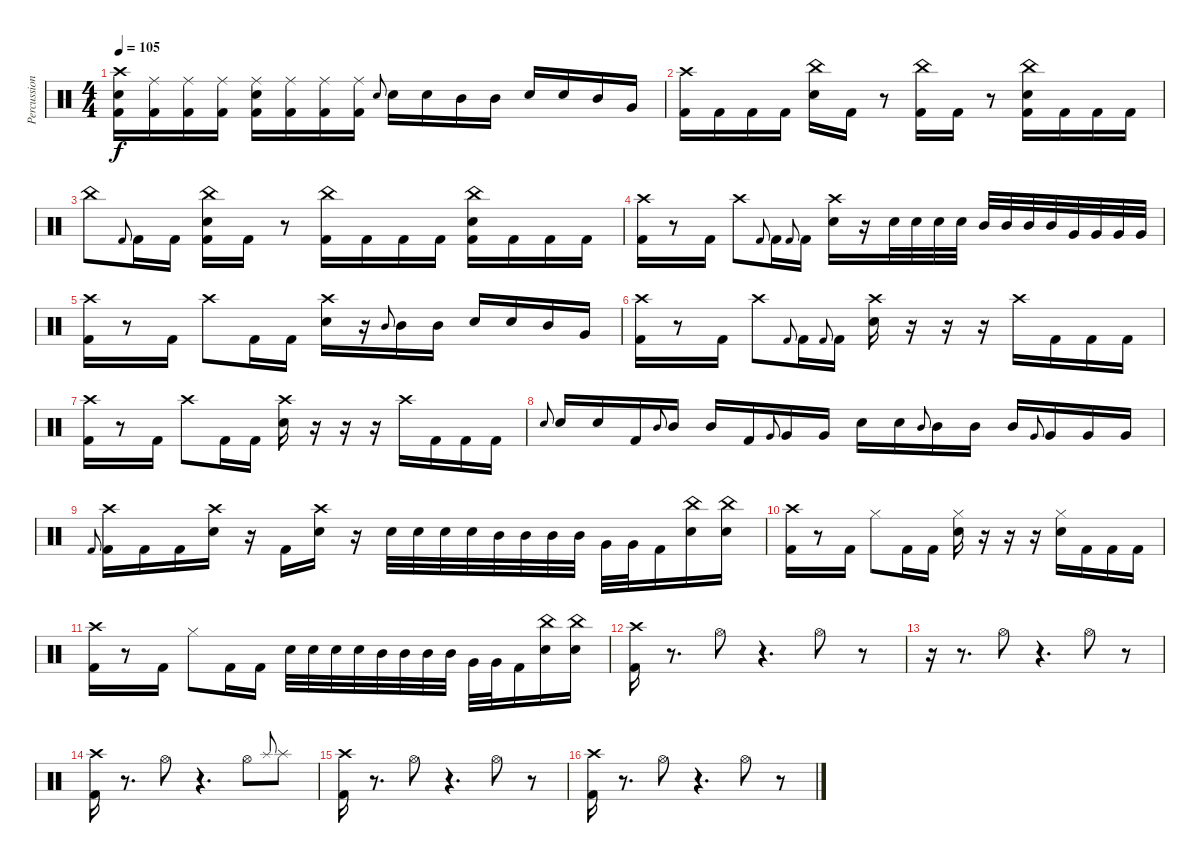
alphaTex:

\track ("Percussion" "Percussion") {instrument percussion}
\staff {score}
\articulation defaults
\ts (4 4)
\tempo 105
\clef neutral
\ks c
("Crash high (hit)" "Snare (hit) 2" "Kick (hit) 2").16{dy f} ("Ride (middle)" "Kick (hit) 2").16 ("Ride (middle)" "Kick (hit) 2").16 ("Ride (middle)" "Kick (hit) 2").16 ("Ride (middle)" "Snare (hit) 2" "Kick (hit) 2").16 ("Ride (middle)" "Kick (hit) 2").16 ("Ride (middle)" "Kick (hit) 2").16 ("Ride (middle)" "Kick (hit) 2").16 "Snare (hit) 2".8{gr onbeat} "Snare (hit) 2".16 "Snare (hit) 2".16 "Mid Tom (hit)".16 "Mid Tom (hit)".16 "Snare (hit) 2".16 "Snare (hit) 2".16 "Mid Tom (hit)".16 "Very Low Tom (hit)".16 |
("Crash high (hit)" "Kick (hit) 2").16 "Kick (hit) 2".16 "Kick (hit) 2".16 "Kick (hit) 2".16 ("China (hit)" "Snare (hit) 2").16 "Kick (hit) 2".16 r.8 ("China (hit)" "Kick (hit) 2").16 "Kick (hit) 2".16 r.8 ("China (hit)" "Snare (hit) 2" "Kick (hit) 2").16 "Kick (hit) 2".16 "Kick (hit) 2".16 "Kick (hit) 2".16 |
"China (hit)".8 "Kick (hit) 2".8{gr onbeat} "Kick (hit) 2".16 "Kick (hit) 2".16 ("China (hit)" "Snare (hit) 2" "Kick (hit) 2").16 "Kick (hit) 2".16 r.8 ("China (hit)" "Kick (hit) 2").16 "Kick (hit) 2".16 "Kick (hit) 2".16 "Kick (hit) 2".16 ("China (hit)" "Snare (hit) 2" "Kick (hit) 2").16 "Kick (hit) 2".16 "Kick (hit) 2".16 "Kick (hit) 2".16 |
("Crash high (hit)" "Kick (hit) 2").16 r.8 "Kick (hit) 2".16 "Crash high (hit)".8 "Kick (hit) 2".8{gr onbeat} "Kick (hit) 2".16 "Kick (hit) 2".8{gr onbeat} "Kick (hit) 2".16 ("Crash high (hit)" "Snare (hit) 2").16 r.16 "Snare (hit) 2".32 "Snare (hit) 2".32 "Snare (hit) 2".32 "Snare (hit) 2".32 "Mid Tom (hit)".32 "Mid Tom (hit)".32 "Mid Tom (hit)".32 "Mid Tom (hit)".32 "Very Low Tom (hit)".32 "Very Low Tom (hit)".32 "Very Low Tom (hit)".32 "Very Low Tom (hit)".32 |
("Crash high (hit)" "Kick (hit) 2").16 r.8 "Kick (hit) 2".16 "Crash high (hit)".8 "Kick (hit) 2".16 "Kick (hit) 2".16 ("Crash high (hit)" "Snare (hit) 2").16 r.16 "Mid Tom (hit)".8{gr onbeat} "Mid Tom (hit)".16 "Mid Tom (hit)".16 "Snare (hit) 2".16 "Snare (hit) 2".16 "Mid Tom (hit)".16 "Very Low Tom (hit)".16 |
("Crash high (hit)" "Kick (hit) 2").16 r.8 "Kick (hit) 2".16 "Crash high (hit)".8 "Kick (hit) 2".8{gr onbeat} "Kick (hit) 2".16 "Kick (hit) 2".8{gr onbeat} "Kick (hit) 2".16 ("Crash high (hit)" "Snare (hit) 2").16 r.16 r.16 r.16 "Crash high (hit)".16 "Kick (hit) 2".16 "Kick (hit) 2".16 "Kick (hit) 2".16 |
("Crash high (hit)" "Kick (hit) 2").16 r.8 "Kick (hit) 2".16 "Crash high (hit)".8 "Kick (hit) 2".16 "Kick (hit) 2".16 ("Crash high (hit)" "Snare (hit) 2").16 r.16 r.16 r.16 "Crash high (hit)".16 "Kick (hit) 2".16 "Kick (hit) 2".16 "Kick (hit) 2".16 |
"Snare (hit) 2".8{gr onbeat} "Snare (hit) 2".16 "Snare (hit) 2".16 "Kick (hit) 2".16 "Mid Tom (hit)".8{gr onbeat} "Mid Tom (hit)".16 "Mid Tom (hit)".16 "Kick (hit) 2".16 "Very Low Tom (hit)".8{gr onbeat} "Very Low Tom (hit)".16 "Very Low Tom (hit)".16 "Snare (hit) 2".16 "Snare (hit) 2".16 "Mid Tom (hit)".8{gr onbeat} "Mid Tom (hit)".16 "Mid Tom (hit)".16 "Mid Tom (hit)".16 "Very Low Tom (hit)".8{gr onbeat} "Very Low Tom (hit)".16 "Very Low Tom (hit)".16 "Very Low Tom (hit)".16 |
"Kick (hit) 2".8{gr onbeat} ("Crash high (hit)" "Kick (hit) 2").16 "Kick (hit) 2".16 "Kick (hit) 2".16 ("Crash high (hit)" "Snare (hit) 2").16 r.16 "Kick (hit) 2".16 ("Crash high (hit)" "Snare (hit) 2").16 r.16 "Snare (hit) 2".32 "Snare (hit) 2".32 "Snare (hit) 2".32 "Snare (hit) 2".32 "Mid Tom (hit)".32 "Mid Tom (hit)".32 "Mid Tom (hit)".32 "Mid Tom (hit)".32 "Very Low Tom (hit)".32 "Very Low Tom (hit)".32 "Kick (hit) 2".16 ("China (hit)" "Snare (hit) 2").16 ("China (hit)" "Snare (hit) 2").16 |
("Crash high (hit)" "Kick (hit) 2").16 r.8 "Kick (hit) 2".16 "Hi-Hat (closed)".8 "Kick (hit) 2".16 "Kick (hit) 2".16 ("Hi-Hat (closed)" "Snare (hit) 2").16 r.16 r.16 r.16 ("Hi-Hat (closed)" "Snare (hit) 2").16 "Kick (hit) 2".16 "Kick (hit) 2".16 "Kick (hit) 2".16 |
("Crash high (hit)" "Kick (hit) 2").16 r.8 "Kick (hit) 2".16 "Hi-Hat (closed)".8 "Kick (hit) 2".16 "Kick (hit) 2".16 "Snare (hit) 2".32 "Snare (hit) 2".32 "Snare (hit) 2".32 "Snare (hit) 2".32 "Mid Tom (hit)".32 "Mid Tom (hit)".32 "Mid Tom (hit)".32 "Mid Tom (hit)".32 "Very Low Tom (hit)".32 "Very Low Tom (hit)".32 "Kick (hit) 2".16 ("China (hit)" "Snare (hit) 2").16 ("China (hit)" "Snare (hit) 2").16 |
("Crash high (hit)" "Kick (hit) 2").16 r.8{d} "Hi-Hat (open)".8 r.4{d} "Hi-Hat (open)".8 r.8 |
r.16 r.8{d} "Hi-Hat (open)".8 r.4{d} "Hi-Hat (open)".8 r.8 |
("Crash high (hit)" "Kick (hit) 2").16 r.8{d} "Hi-Hat (open)".8 r.4{d} "Hi-Hat (open)".8 "Splash (hit)".8{gr onbeat} "Splash (hit)".8 |
("Crash high (hit)" "Kick (hit) 2").16 r.8{d} "Hi-Hat (open)".8 r.4{d} "Hi-Hat (open)".8 r.8 |
("Crash high (hit)" "Kick (hit) 2").16 r.8{d} "Hi-Hat (open)".8 r.4{d} "Hi-Hat (open)".8 r.8
